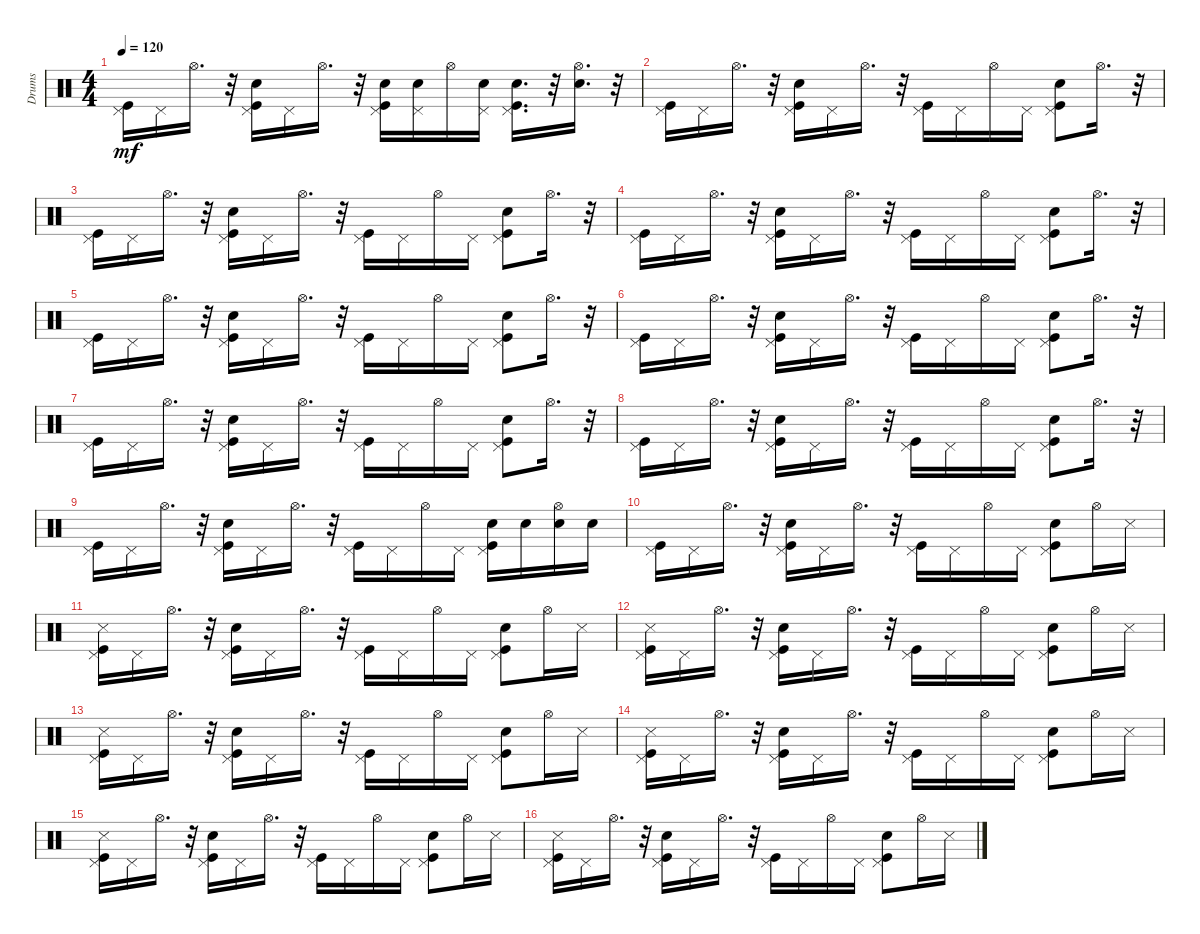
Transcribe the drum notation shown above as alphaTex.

\track ("Drums" "Drums") {instrument percussion}
\staff {score}
\articulation defaults
\ts (4 4)
\tempo 120
\clef neutral
\ks c
("Pedal Hi-Hat (hit)" "Kick (hit)").16{dy mf} "Pedal Hi-Hat (hit)".16 "Hi-Hat (open)".16{d} r.32 ("Pedal Hi-Hat (hit)" "Snare (hit) 2" "Kick (hit)").16 "Pedal Hi-Hat (hit)".16 "Hi-Hat (open)".16{d} r.32 ("Pedal Hi-Hat (hit)" "Kick (hit)" "Snare (hit) 2").16 ("Pedal Hi-Hat (hit)" "Snare (hit) 2").16 "Hi-Hat (open)".16 ("Pedal Hi-Hat (hit)" "Snare (hit) 2").16 ("Pedal Hi-Hat (hit)" "Kick (hit)" "Snare (hit) 2").16{d} r.32 ("Hi-Hat (open)" "Snare (hit) 2").16{d} r.32 |
("Pedal Hi-Hat (hit)" "Kick (hit)").16 "Pedal Hi-Hat (hit)".16 "Hi-Hat (open)".16{d} r.32 ("Pedal Hi-Hat (hit)" "Hand Clap (hit)" "Kick (hit)").16 "Pedal Hi-Hat (hit)".16 "Hi-Hat (open)".16{d} r.32 ("Pedal Hi-Hat (hit)" "Kick (hit)").16 "Pedal Hi-Hat (hit)".16 "Hi-Hat (open)".16 "Pedal Hi-Hat (hit)".16 ("Pedal Hi-Hat (hit)" "Hand Clap (hit)" "Kick (hit)").8 "Hi-Hat (open)".16{d} r.32 |
("Pedal Hi-Hat (hit)" "Kick (hit)").16 "Pedal Hi-Hat (hit)".16 "Hi-Hat (open)".16{d} r.32 ("Pedal Hi-Hat (hit)" "Hand Clap (hit)" "Kick (hit)").16 "Pedal Hi-Hat (hit)".16 "Hi-Hat (open)".16{d} r.32 ("Pedal Hi-Hat (hit)" "Kick (hit)").16 "Pedal Hi-Hat (hit)".16 "Hi-Hat (open)".16 "Pedal Hi-Hat (hit)".16 ("Pedal Hi-Hat (hit)" "Hand Clap (hit)" "Kick (hit)").8 "Hi-Hat (open)".16{d} r.32 |
("Pedal Hi-Hat (hit)" "Kick (hit)").16 "Pedal Hi-Hat (hit)".16 "Hi-Hat (open)".16{d} r.32 ("Pedal Hi-Hat (hit)" "Hand Clap (hit)" "Kick (hit)").16 "Pedal Hi-Hat (hit)".16 "Hi-Hat (open)".16{d} r.32 ("Pedal Hi-Hat (hit)" "Kick (hit)").16 "Pedal Hi-Hat (hit)".16 "Hi-Hat (open)".16 "Pedal Hi-Hat (hit)".16 ("Pedal Hi-Hat (hit)" "Hand Clap (hit)" "Kick (hit)").8 "Hi-Hat (open)".16{d} r.32 |
("Pedal Hi-Hat (hit)" "Kick (hit)").16 "Pedal Hi-Hat (hit)".16 "Hi-Hat (open)".16{d} r.32 ("Pedal Hi-Hat (hit)" "Hand Clap (hit)" "Kick (hit)").16 "Pedal Hi-Hat (hit)".16 "Hi-Hat (open)".16{d} r.32 ("Pedal Hi-Hat (hit)" "Kick (hit)").16 "Pedal Hi-Hat (hit)".16 "Hi-Hat (open)".16 "Pedal Hi-Hat (hit)".16 ("Pedal Hi-Hat (hit)" "Hand Clap (hit)" "Kick (hit)").8 "Hi-Hat (open)".16{d} r.32 |
("Pedal Hi-Hat (hit)" "Kick (hit)").16 "Pedal Hi-Hat (hit)".16 "Hi-Hat (open)".16{d} r.32 ("Pedal Hi-Hat (hit)" "Hand Clap (hit)" "Kick (hit)").16 "Pedal Hi-Hat (hit)".16 "Hi-Hat (open)".16{d} r.32 ("Pedal Hi-Hat (hit)" "Kick (hit)").16 "Pedal Hi-Hat (hit)".16 "Hi-Hat (open)".16 "Pedal Hi-Hat (hit)".16 ("Pedal Hi-Hat (hit)" "Hand Clap (hit)" "Kick (hit)").8 "Hi-Hat (open)".16{d} r.32 |
("Pedal Hi-Hat (hit)" "Kick (hit)").16 "Pedal Hi-Hat (hit)".16 "Hi-Hat (open)".16{d} r.32 ("Pedal Hi-Hat (hit)" "Hand Clap (hit)" "Kick (hit)").16 "Pedal Hi-Hat (hit)".16 "Hi-Hat (open)".16{d} r.32 ("Pedal Hi-Hat (hit)" "Kick (hit)").16 "Pedal Hi-Hat (hit)".16 "Hi-Hat (open)".16 "Pedal Hi-Hat (hit)".16 ("Pedal Hi-Hat (hit)" "Hand Clap (hit)" "Kick (hit)").8 "Hi-Hat (open)".16{d} r.32 |
("Pedal Hi-Hat (hit)" "Kick (hit)").16 "Pedal Hi-Hat (hit)".16 "Hi-Hat (open)".16{d} r.32 ("Pedal Hi-Hat (hit)" "Hand Clap (hit)" "Kick (hit)").16 "Pedal Hi-Hat (hit)".16 "Hi-Hat (open)".16{d} r.32 ("Pedal Hi-Hat (hit)" "Kick (hit)").16 "Pedal Hi-Hat (hit)".16 "Hi-Hat (open)".16 "Pedal Hi-Hat (hit)".16 ("Pedal Hi-Hat (hit)" "Hand Clap (hit)" "Kick (hit)").8 "Hi-Hat (open)".16{d} r.32 |
("Pedal Hi-Hat (hit)" "Kick (hit)").16 "Pedal Hi-Hat (hit)".16 "Hi-Hat (open)".16{d} r.32 ("Pedal Hi-Hat (hit)" "Hand Clap (hit)" "Kick (hit)").16 "Pedal Hi-Hat (hit)".16 "Hi-Hat (open)".16{d} r.32 ("Pedal Hi-Hat (hit)" "Kick (hit)").16 "Pedal Hi-Hat (hit)".16 "Hi-Hat (open)".16 "Pedal Hi-Hat (hit)".16 ("Pedal Hi-Hat (hit)" "Kick (hit)" "Snare (hit) 2").16 "Snare (hit) 2".16 ("Hi-Hat (open)" "Snare (hit) 2").16 "Snare (hit) 2".16 |
("Pedal Hi-Hat (hit)" "Kick (hit)").16 "Pedal Hi-Hat (hit)".16 "Hi-Hat (open)".16{d} r.32 ("Pedal Hi-Hat (hit)" "Snare (hit) 2" "Kick (hit)").16 "Pedal Hi-Hat (hit)".16 "Hi-Hat (open)".16{d} r.32 ("Pedal Hi-Hat (hit)" "Kick (hit)").16 "Pedal Hi-Hat (hit)".16 "Hi-Hat (open)".16 "Pedal Hi-Hat (hit)".16 ("Pedal Hi-Hat (hit)" "Snare (hit) 2" "Kick (hit)").8 "Hi-Hat (open)".16 "Snare (side stick) 3".16 |
("Snare (side stick) 3" "Pedal Hi-Hat (hit)" "Kick (hit)").16 "Pedal Hi-Hat (hit)".16 "Hi-Hat (open)".16{d} r.32 ("Pedal Hi-Hat (hit)" "Snare (hit) 2" "Kick (hit)").16 "Pedal Hi-Hat (hit)".16 "Hi-Hat (open)".16{d} r.32 ("Pedal Hi-Hat (hit)" "Kick (hit)").16 "Pedal Hi-Hat (hit)".16 "Hi-Hat (open)".16 "Pedal Hi-Hat (hit)".16 ("Pedal Hi-Hat (hit)" "Snare (hit) 2" "Kick (hit)").8 "Hi-Hat (open)".16 "Snare (side stick) 3".16 |
("Pedal Hi-Hat (hit)" "Snare (side stick) 3" "Kick (hit)").16 "Pedal Hi-Hat (hit)".16 "Hi-Hat (open)".16{d} r.32 ("Pedal Hi-Hat (hit)" "Snare (hit) 2" "Kick (hit)").16 "Pedal Hi-Hat (hit)".16 "Hi-Hat (open)".16{d} r.32 ("Pedal Hi-Hat (hit)" "Kick (hit)").16 "Pedal Hi-Hat (hit)".16 "Hi-Hat (open)".16 "Pedal Hi-Hat (hit)".16 ("Pedal Hi-Hat (hit)" "Snare (hit) 2" "Kick (hit)").8 "Hi-Hat (open)".16 "Snare (side stick) 3".16 |
("Snare (side stick) 3" "Pedal Hi-Hat (hit)" "Kick (hit)").16 "Pedal Hi-Hat (hit)".16 "Hi-Hat (open)".16{d} r.32 ("Pedal Hi-Hat (hit)" "Kick (hit)" "Snare (hit) 2").16 "Pedal Hi-Hat (hit)".16 "Hi-Hat (open)".16{d} r.32 ("Pedal Hi-Hat (hit)" "Kick (hit)").16 "Pedal Hi-Hat (hit)".16 "Hi-Hat (open)".16 "Pedal Hi-Hat (hit)".16 ("Pedal Hi-Hat (hit)" "Kick (hit)" "Snare (hit) 2").8 "Hi-Hat (open)".16 "Snare (side stick) 3".16 |
("Snare (side stick) 3" "Pedal Hi-Hat (hit)" "Kick (hit)").16 "Pedal Hi-Hat (hit)".16 "Hi-Hat (open)".16{d} r.32 ("Pedal Hi-Hat (hit)" "Kick (hit)" "Snare (hit) 2").16 "Pedal Hi-Hat (hit)".16 "Hi-Hat (open)".16{d} r.32 ("Pedal Hi-Hat (hit)" "Kick (hit)").16 "Pedal Hi-Hat (hit)".16 "Hi-Hat (open)".16 "Pedal Hi-Hat (hit)".16 ("Pedal Hi-Hat (hit)" "Kick (hit)" "Snare (hit) 2").8 "Hi-Hat (open)".16 "Snare (side stick) 3".16 |
("Snare (side stick) 3" "Pedal Hi-Hat (hit)" "Kick (hit)").16 "Pedal Hi-Hat (hit)".16 "Hi-Hat (open)".16{d} r.32 ("Pedal Hi-Hat (hit)" "Kick (hit)" "Snare (hit) 2").16 "Pedal Hi-Hat (hit)".16 "Hi-Hat (open)".16{d} r.32 ("Pedal Hi-Hat (hit)" "Kick (hit)").16 "Pedal Hi-Hat (hit)".16 "Hi-Hat (open)".16 "Pedal Hi-Hat (hit)".16 ("Pedal Hi-Hat (hit)" "Kick (hit)" "Snare (hit) 2").8 "Hi-Hat (open)".16 "Snare (side stick) 3".16 |
("Snare (side stick) 3" "Pedal Hi-Hat (hit)" "Kick (hit)").16 "Pedal Hi-Hat (hit)".16 "Hi-Hat (open)".16{d} r.32 ("Pedal Hi-Hat (hit)" "Kick (hit)" "Snare (hit) 2").16 "Pedal Hi-Hat (hit)".16 "Hi-Hat (open)".16{d} r.32 ("Pedal Hi-Hat (hit)" "Kick (hit)").16 "Pedal Hi-Hat (hit)".16 "Hi-Hat (open)".16 "Pedal Hi-Hat (hit)".16 ("Pedal Hi-Hat (hit)" "Kick (hit)" "Snare (hit) 2").8 "Hi-Hat (open)".16 "Snare (side stick) 3".16
